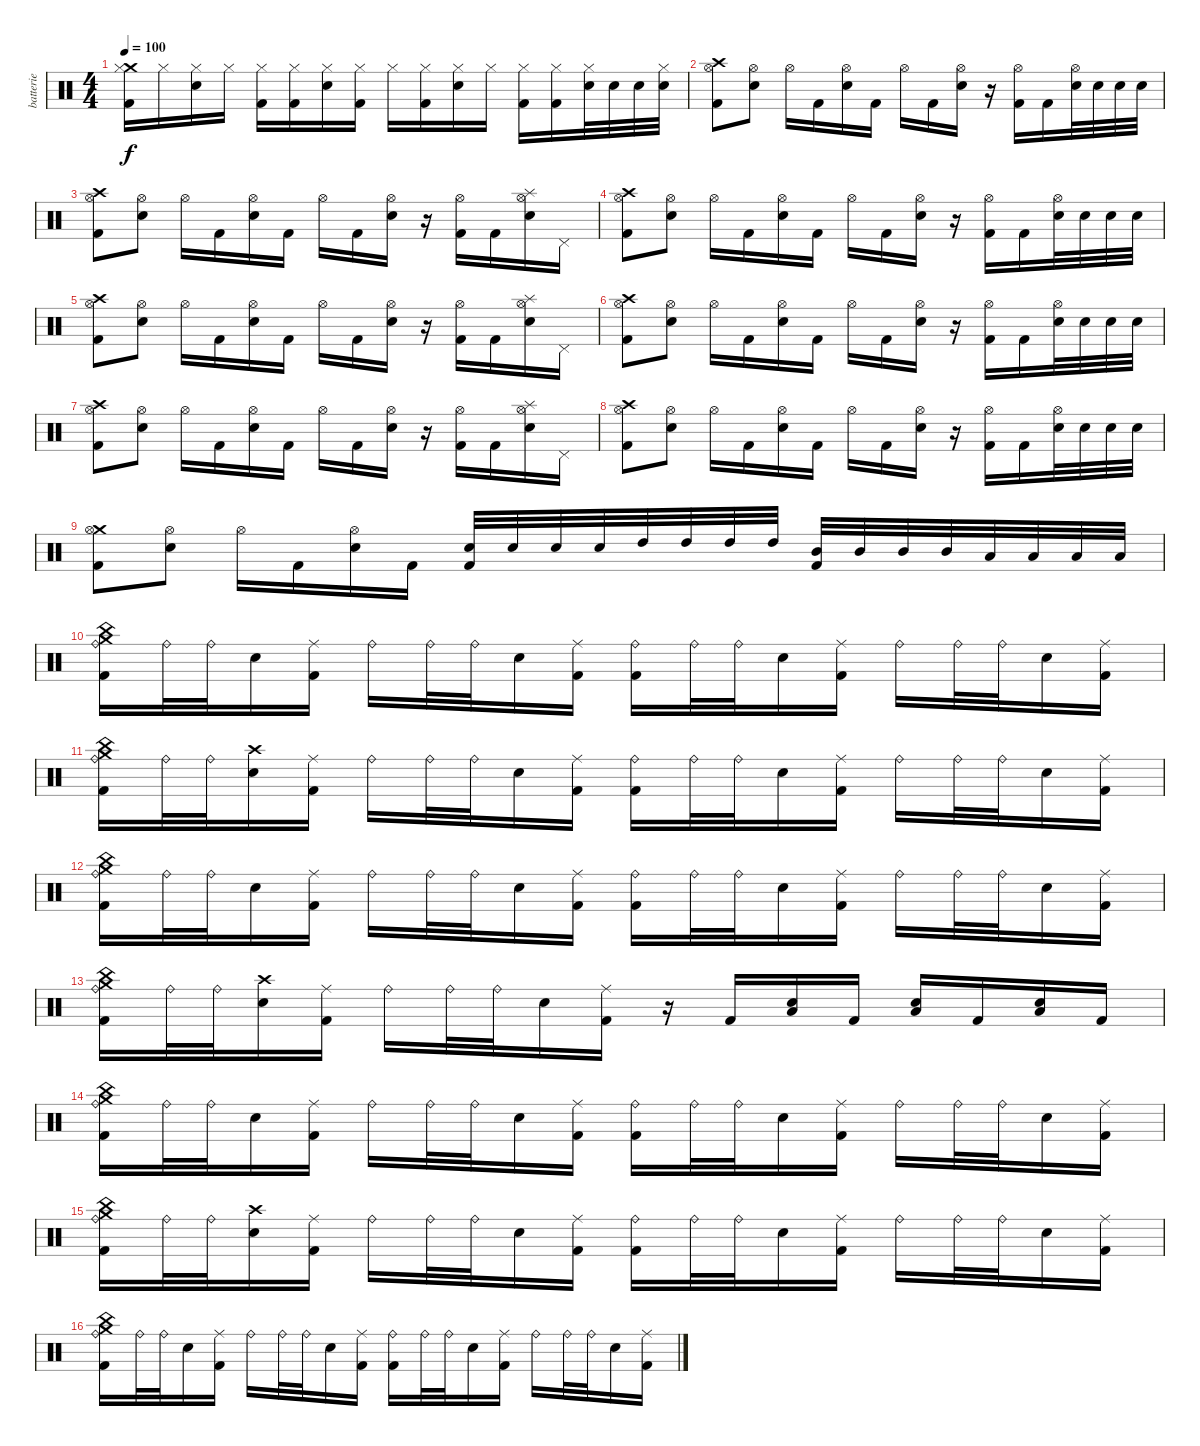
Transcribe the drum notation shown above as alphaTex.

\track ("batterie" "batterie") {instrument percussion}
\staff {score}
\articulation defaults
\ts (4 4)
\tempo 100
\clef neutral
\ks c
("Crash medium (hit)" "Hi-Hat (closed)" "Kick (hit) 2").16{dy f} "Hi-Hat (closed)".16 ("Hi-Hat (closed)" "Electric Snare (hit)").16 "Hi-Hat (closed)".16 ("Hi-Hat (closed)" "Kick (hit) 2").16 ("Hi-Hat (closed)" "Kick (hit) 2").16 ("Hi-Hat (closed)" "Electric Snare (hit)").16 ("Hi-Hat (closed)" "Kick (hit) 2").16 "Hi-Hat (closed)".16 ("Hi-Hat (closed)" "Kick (hit) 2").16 ("Hi-Hat (closed)" "Electric Snare (hit)").16 "Hi-Hat (closed)".16 ("Hi-Hat (closed)" "Kick (hit) 2").16 ("Hi-Hat (closed)" "Kick (hit) 2").16 ("Hi-Hat (closed)" "Electric Snare (hit)").32 "Electric Snare (hit)".32 "Electric Snare (hit)".32 ("Hi-Hat (closed)" "Electric Snare (hit)").32 |
("Crash high (hit)" "Hi-Hat (open)" "Kick (hit) 2").8 ("Hi-Hat (open)" "Electric Snare (hit)").8 "Hi-Hat (open)".16 "Kick (hit) 2".16 ("Hi-Hat (open)" "Electric Snare (hit)").16 "Kick (hit) 2".16 "Hi-Hat (open)".16 "Kick (hit) 2".16 ("Hi-Hat (open)" "Electric Snare (hit)").16 r.16 ("Hi-Hat (open)" "Kick (hit) 2").16 "Kick (hit) 2".16 ("Hi-Hat (open)" "Electric Snare (hit)").32 "Electric Snare (hit)".32 "Electric Snare (hit)".32 "Electric Snare (hit)".32 |
("Crash high (hit)" "Hi-Hat (open)" "Kick (hit) 2").8 ("Hi-Hat (open)" "Electric Snare (hit)").8 "Hi-Hat (open)".16 "Kick (hit) 2".16 ("Hi-Hat (open)" "Electric Snare (hit)").16 "Kick (hit) 2".16 "Hi-Hat (open)".16 "Kick (hit) 2".16 ("Hi-Hat (open)" "Electric Snare (hit)").16 r.16 ("Hi-Hat (open)" "Kick (hit) 2").16 "Kick (hit) 2".16 ("Splash (hit)" "Hi-Hat (open)" "Electric Snare (hit)").16 "Pedal Hi-Hat (hit)".16 |
("Crash high (hit)" "Hi-Hat (open)" "Kick (hit) 2").8 ("Hi-Hat (open)" "Electric Snare (hit)").8 "Hi-Hat (open)".16 "Kick (hit) 2".16 ("Hi-Hat (open)" "Electric Snare (hit)").16 "Kick (hit) 2".16 "Hi-Hat (open)".16 "Kick (hit) 2".16 ("Hi-Hat (open)" "Electric Snare (hit)").16 r.16 ("Hi-Hat (open)" "Kick (hit) 2").16 "Kick (hit) 2".16 ("Hi-Hat (open)" "Electric Snare (hit)").32 "Electric Snare (hit)".32 "Electric Snare (hit)".32 "Electric Snare (hit)".32 |
("Crash high (hit)" "Hi-Hat (open)" "Kick (hit) 2").8 ("Hi-Hat (open)" "Electric Snare (hit)").8 "Hi-Hat (open)".16 "Kick (hit) 2".16 ("Hi-Hat (open)" "Electric Snare (hit)").16 "Kick (hit) 2".16 "Hi-Hat (open)".16 "Kick (hit) 2".16 ("Hi-Hat (open)" "Electric Snare (hit)").16 r.16 ("Hi-Hat (open)" "Kick (hit) 2").16 "Kick (hit) 2".16 ("Splash (hit)" "Hi-Hat (open)" "Electric Snare (hit)").16 "Pedal Hi-Hat (hit)".16 |
("Crash high (hit)" "Hi-Hat (open)" "Kick (hit) 2").8 ("Hi-Hat (open)" "Electric Snare (hit)").8 "Hi-Hat (open)".16 "Kick (hit) 2".16 ("Hi-Hat (open)" "Electric Snare (hit)").16 "Kick (hit) 2".16 "Hi-Hat (open)".16 "Kick (hit) 2".16 ("Hi-Hat (open)" "Electric Snare (hit)").16 r.16 ("Hi-Hat (open)" "Kick (hit) 2").16 "Kick (hit) 2".16 ("Hi-Hat (open)" "Electric Snare (hit)").32 "Electric Snare (hit)".32 "Electric Snare (hit)".32 "Electric Snare (hit)".32 |
("Crash high (hit)" "Hi-Hat (open)" "Kick (hit) 2").8 ("Hi-Hat (open)" "Electric Snare (hit)").8 "Hi-Hat (open)".16 "Kick (hit) 2".16 ("Hi-Hat (open)" "Electric Snare (hit)").16 "Kick (hit) 2".16 "Hi-Hat (open)".16 "Kick (hit) 2".16 ("Hi-Hat (open)" "Electric Snare (hit)").16 r.16 ("Hi-Hat (open)" "Kick (hit) 2").16 "Kick (hit) 2".16 ("Splash (hit)" "Hi-Hat (open)" "Electric Snare (hit)").16 "Pedal Hi-Hat (hit)".16 |
("Crash high (hit)" "Hi-Hat (open)" "Kick (hit) 2").8 ("Hi-Hat (open)" "Electric Snare (hit)").8 "Hi-Hat (open)".16 "Kick (hit) 2".16 ("Hi-Hat (open)" "Electric Snare (hit)").16 "Kick (hit) 2".16 "Hi-Hat (open)".16 "Kick (hit) 2".16 ("Hi-Hat (open)" "Electric Snare (hit)").16 r.16 ("Hi-Hat (open)" "Kick (hit) 2").16 "Kick (hit) 2".16 ("Hi-Hat (open)" "Electric Snare (hit)").32 "Electric Snare (hit)".32 "Electric Snare (hit)".32 "Electric Snare (hit)".32 |
("Crash medium (hit)" "Hi-Hat (open)" "Kick (hit) 2").8 ("Hi-Hat (open)" "Electric Snare (hit)").8 "Hi-Hat (open)".16 "Kick (hit) 2".16 ("Hi-Hat (open)" "Electric Snare (hit)").16 "Kick (hit) 2".16 ("Electric Snare (hit)" "Kick (hit) 2").32 "Electric Snare (hit)".32 "Electric Snare (hit)".32 "Electric Snare (hit)".32 "High Tom (hit)".32 "High Tom (hit)".32 "High Tom (hit)".32 "High Tom (hit)".32 ("Mid Tom (hit)" "Kick (hit) 2").32 "Mid Tom (hit)".32 "Mid Tom (hit)".32 "Mid Tom (hit)".32 "Low Tom (hit)".32 "Low Tom (hit)".32 "Low Tom (hit)".32 "Low Tom (hit)".32 |
("China (hit)" "Crash medium (hit)" "Ride (bell)" "Kick (hit) 2").16 "Ride (bell)".32 "Ride (bell)".32 "Electric Snare (hit)".16 ("Ride (middle)" "Kick (hit) 2").16 "Ride (bell)".16 "Ride (bell)".32 "Ride (bell)".32 "Electric Snare (hit)".16 ("Ride (middle)" "Kick (hit) 2").16 ("Ride (bell)" "Kick (hit) 2").16 "Ride (bell)".32 "Ride (bell)".32 "Electric Snare (hit)".16 ("Ride (middle)" "Kick (hit) 2").16 "Ride (bell)".16 "Ride (bell)".32 "Ride (bell)".32 "Electric Snare (hit)".16 ("Ride (middle)" "Kick (hit) 2").16 |
("China (hit)" "Crash medium (hit)" "Ride (bell)" "Kick (hit) 2").16 "Ride (bell)".32 "Ride (bell)".32 ("Crash high (hit)" "Electric Snare (hit)").16 ("Ride (middle)" "Kick (hit) 2").16 "Ride (bell)".16 "Ride (bell)".32 "Ride (bell)".32 "Electric Snare (hit)".16 ("Ride (middle)" "Kick (hit) 2").16 ("Ride (bell)" "Kick (hit) 2").16 "Ride (bell)".32 "Ride (bell)".32 "Electric Snare (hit)".16 ("Ride (middle)" "Kick (hit) 2").16 "Ride (bell)".16 "Ride (bell)".32 "Ride (bell)".32 "Electric Snare (hit)".16 ("Ride (middle)" "Kick (hit) 2").16 |
("China (hit)" "Crash medium (hit)" "Ride (bell)" "Kick (hit) 2").16 "Ride (bell)".32 "Ride (bell)".32 "Electric Snare (hit)".16 ("Ride (middle)" "Kick (hit) 2").16 "Ride (bell)".16 "Ride (bell)".32 "Ride (bell)".32 "Electric Snare (hit)".16 ("Ride (middle)" "Kick (hit) 2").16 ("Ride (bell)" "Kick (hit) 2").16 "Ride (bell)".32 "Ride (bell)".32 "Electric Snare (hit)".16 ("Ride (middle)" "Kick (hit) 2").16 "Ride (bell)".16 "Ride (bell)".32 "Ride (bell)".32 "Electric Snare (hit)".16 ("Ride (middle)" "Kick (hit) 2").16 |
("China (hit)" "Crash medium (hit)" "Ride (bell)" "Kick (hit) 2").16 "Ride (bell)".32 "Ride (bell)".32 ("Crash high (hit)" "Electric Snare (hit)").16 ("Ride (middle)" "Kick (hit) 2").16 "Ride (bell)".16 "Ride (bell)".32 "Ride (bell)".32 "Electric Snare (hit)".16 ("Ride (middle)" "Kick (hit) 2").16 r.16 "Kick (hit) 2".16 ("Low Tom (hit)" "Electric Snare (hit)").16 "Kick (hit) 2".16 ("Low Tom (hit)" "Electric Snare (hit)").16 "Kick (hit) 2".16 ("Low Tom (hit)" "Electric Snare (hit)").16 "Kick (hit) 2".16 |
("China (hit)" "Crash medium (hit)" "Ride (bell)" "Kick (hit) 2").16 "Ride (bell)".32 "Ride (bell)".32 "Electric Snare (hit)".16 ("Ride (middle)" "Kick (hit) 2").16 "Ride (bell)".16 "Ride (bell)".32 "Ride (bell)".32 "Electric Snare (hit)".16 ("Ride (middle)" "Kick (hit) 2").16 ("Ride (bell)" "Kick (hit) 2").16 "Ride (bell)".32 "Ride (bell)".32 "Electric Snare (hit)".16 ("Ride (middle)" "Kick (hit) 2").16 "Ride (bell)".16 "Ride (bell)".32 "Ride (bell)".32 "Electric Snare (hit)".16 ("Ride (middle)" "Kick (hit) 2").16 |
("China (hit)" "Crash medium (hit)" "Ride (bell)" "Kick (hit) 2").16 "Ride (bell)".32 "Ride (bell)".32 ("Crash high (hit)" "Electric Snare (hit)").16 ("Ride (middle)" "Kick (hit) 2").16 "Ride (bell)".16 "Ride (bell)".32 "Ride (bell)".32 "Electric Snare (hit)".16 ("Ride (middle)" "Kick (hit) 2").16 ("Ride (bell)" "Kick (hit) 2").16 "Ride (bell)".32 "Ride (bell)".32 "Electric Snare (hit)".16 ("Ride (middle)" "Kick (hit) 2").16 "Ride (bell)".16 "Ride (bell)".32 "Ride (bell)".32 "Electric Snare (hit)".16 ("Ride (middle)" "Kick (hit) 2").16 |
("China (hit)" "Crash medium (hit)" "Ride (bell)" "Kick (hit) 2").16 "Ride (bell)".32 "Ride (bell)".32 "Electric Snare (hit)".16 ("Ride (middle)" "Kick (hit) 2").16 "Ride (bell)".16 "Ride (bell)".32 "Ride (bell)".32 "Electric Snare (hit)".16 ("Ride (middle)" "Kick (hit) 2").16 ("Ride (bell)" "Kick (hit) 2").16 "Ride (bell)".32 "Ride (bell)".32 "Electric Snare (hit)".16 ("Ride (middle)" "Kick (hit) 2").16 "Ride (bell)".16 "Ride (bell)".32 "Ride (bell)".32 "Electric Snare (hit)".16 ("Ride (middle)" "Kick (hit) 2").16
